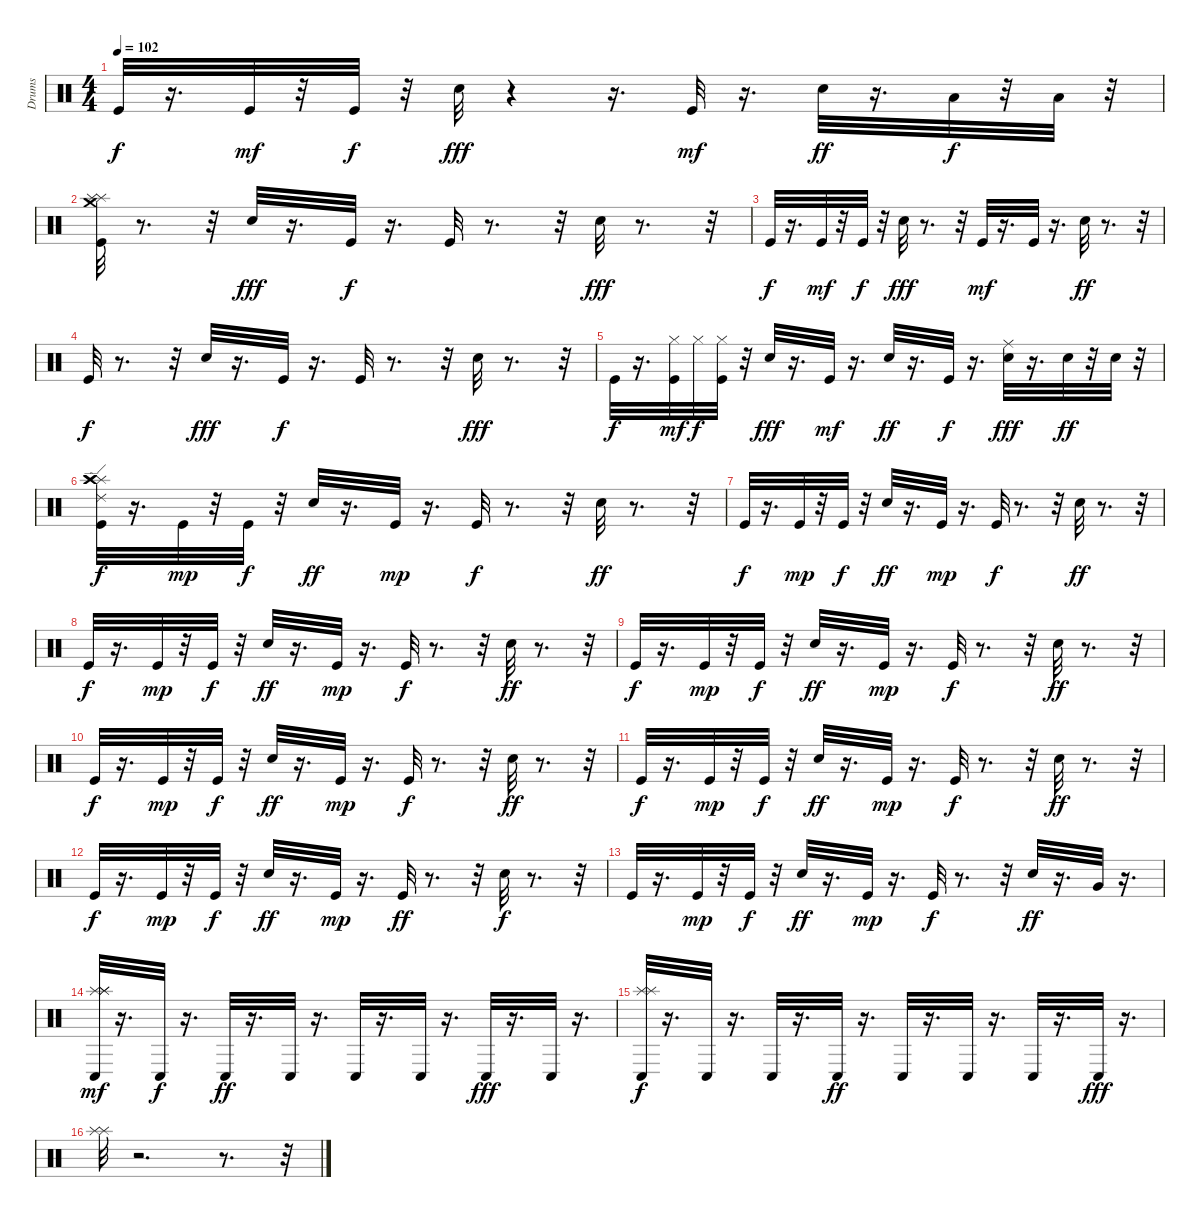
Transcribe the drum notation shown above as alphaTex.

\track ("Drums" "Drums") {instrument percussion}
\staff {score}
\articulation defaults
\ts (4 4)
\tempo 102
\clef neutral
\ks c "Kick (hit)".32{dy f}
r.16{d} "Kick (hit)".32{dy mf} r.32 "Kick (hit)".32{dy f} r.32 "Electric Snare (hit)".32{dy fff} r.4 r.16{d} "Kick (hit)".32{dy mf} r.16{d} "Electric Snare (hit)".32{dy ff} r.16{d} "Low Floor Tom (hit)".32{dy f} r.32 "Low Floor Tom (hit)".32 r.32 |
("Splash (hit)" "Splash (hit)" "Crash medium (hit)" "Kick (hit)").32 r.8{d} r.32 "Electric Snare (hit)".32{dy fff} r.16{d} "Kick (hit)".32{dy f} r.16{d} "Kick (hit)".32 r.8{d} r.32 "Electric Snare (hit)".32{dy fff} r.8{d} r.32 |
"Kick (hit)".32{dy f} r.16{d} "Kick (hit)".32{dy mf} r.32 "Kick (hit)".32{dy f} r.32 "Electric Snare (hit)".32{dy fff} r.8{d} r.32 "Kick (hit)".32{dy mf} r.16{d} "Kick (hit)".32 r.16{d} "Electric Snare (hit)".32{dy ff} r.8{d} r.32 |
"Kick (hit)".32{dy f} r.8{d} r.32 "Electric Snare (hit)".32{dy fff} r.16{d} "Kick (hit)".32{dy f} r.16{d} "Kick (hit)".32 r.8{d} r.32 "Electric Snare (hit)".32{dy fff} r.8{d} r.32 |
"Kick (hit)".32{dy f} r.16{d} ("Hi-Hat (closed)" "Kick (hit)").32{dy mf} "Hi-Hat (closed)".32{dy f} ("Hi-Hat (closed)" "Kick (hit)").32 r.32 "Electric Snare (hit)".32{dy fff} r.16{d} "Kick (hit)".32{dy mf} r.16{d} "Electric Snare (hit)".32{dy ff} r.16{d} "Kick (hit)".32{dy f} r.16{d} ("Ride (middle)" "Electric Snare (hit)").32{dy fff} r.16{d} "Electric Snare (hit)".32{dy ff} r.32 "Electric Snare (hit)".32 r.32 |
("Ride (edge) 2" "Splash (hit)" "Crash high (hit)" "Crash high (hit)" "Kick (hit)").32{dy f} r.16{d} "Kick (hit)".32{dy mp} r.32 "Kick (hit)".32{dy f} r.32 "Electric Snare (hit)".32{dy ff} r.16{d} "Kick (hit)".32{dy mp} r.16{d} "Kick (hit)".32{dy f} r.8{d} r.32 "Electric Snare (hit)".32{dy ff} r.8{d} r.32 |
"Kick (hit)".32{dy f} r.16{d} "Kick (hit)".32{dy mp} r.32 "Kick (hit)".32{dy f} r.32 "Electric Snare (hit)".32{dy ff} r.16{d} "Kick (hit)".32{dy mp} r.16{d} "Kick (hit)".32{dy f} r.8{d} r.32 "Electric Snare (hit)".32{dy ff} r.8{d} r.32 |
"Kick (hit)".32{dy f} r.16{d} "Kick (hit)".32{dy mp} r.32 "Kick (hit)".32{dy f} r.32 "Electric Snare (hit)".32{dy ff} r.16{d} "Kick (hit)".32{dy mp} r.16{d} "Kick (hit)".32{dy f} r.8{d} r.32 "Electric Snare (hit)".32{dy ff} r.8{d} r.32 |
"Kick (hit)".32{dy f} r.16{d} "Kick (hit)".32{dy mp} r.32 "Kick (hit)".32{dy f} r.32 "Electric Snare (hit)".32{dy ff} r.16{d} "Kick (hit)".32{dy mp} r.16{d} "Kick (hit)".32{dy f} r.8{d} r.32 "Electric Snare (hit)".32{dy ff} r.8{d} r.32 |
"Kick (hit)".32{dy f} r.16{d} "Kick (hit)".32{dy mp} r.32 "Kick (hit)".32{dy f} r.32 "Electric Snare (hit)".32{dy ff} r.16{d} "Kick (hit)".32{dy mp} r.16{d} "Kick (hit)".32{dy f} r.8{d} r.32 "Electric Snare (hit)".32{dy ff} r.8{d} r.32 |
"Kick (hit)".32{dy f} r.16{d} "Kick (hit)".32{dy mp} r.32 "Kick (hit)".32{dy f} r.32 "Electric Snare (hit)".32{dy ff} r.16{d} "Kick (hit)".32{dy mp} r.16{d} "Kick (hit)".32{dy f} r.8{d} r.32 "Electric Snare (hit)".32{dy ff} r.8{d} r.32 |
"Kick (hit)".32{dy f} r.16{d} "Kick (hit)".32{dy mp} r.32 "Kick (hit)".32{dy f} r.32 "Electric Snare (hit)".32{dy ff} r.16{d} "Kick (hit)".32{dy mp} r.16{d} "Kick (hit)".32{dy ff} r.8{d} r.32 "Electric Snare (hit)".32{dy f} r.8{d} r.32 |
"Kick (hit)".32 r.16{d} "Kick (hit)".32{dy mp} r.32 "Kick (hit)".32{dy f} r.32 "Electric Snare (hit)".32{dy ff} r.16{d} "Kick (hit)".32{dy mp} r.16{d} "Kick (hit)".32{dy f} r.8{d} r.32 "Electric Snare (hit)".32{dy ff} r.16{d} "Very Low Tom (hit)".32 r.16{d} |
("Splash (hit)" "Splash (hit)" "Splash (hit)" "Conga low (hit)").32{dy mf} r.16{d} "Conga low (hit)".32{dy f} r.16{d} "Conga low (hit)".32{dy ff} r.16{d} "Conga low (hit)".32 r.16{d} "Conga low (hit)".32 r.16{d} "Conga low (hit)".32 r.16{d} "Conga low (hit)".32{dy fff} r.16{d} "Conga low (hit)".32 r.16{d} |
("Splash (hit)" "Splash (hit)" "Conga low (hit)").32{dy f} r.16{d} "Conga low (hit)".32 r.16{d} "Conga low (hit)".32 r.16{d} "Conga low (hit)".32{dy ff} r.16{d} "Conga low (hit)".32 r.16{d} "Conga low (hit)".32 r.16{d} "Conga low (hit)".32 r.16{d} "Conga low (hit)".32{dy fff} r.16{d} |
("Splash (hit)" "Splash (hit)").32 r.2{d} r.8{d} r.32
